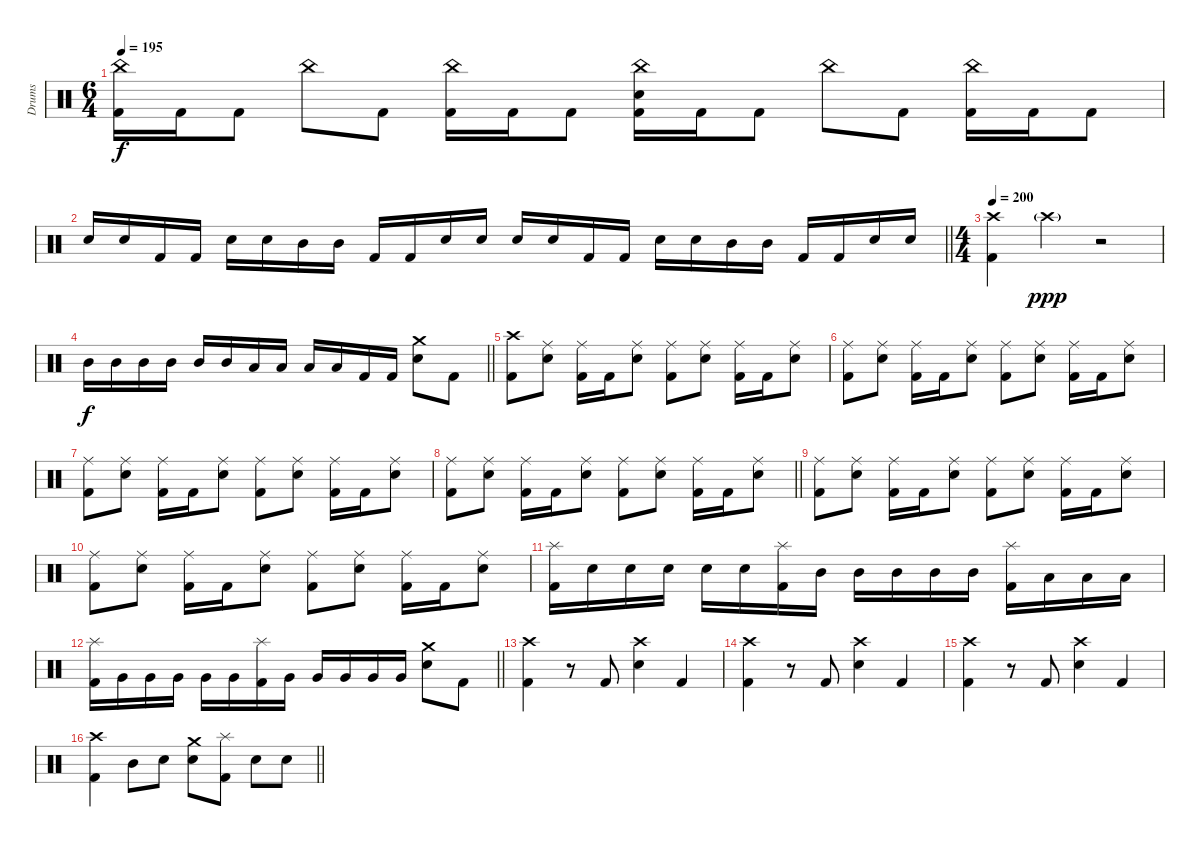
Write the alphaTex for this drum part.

\track ("Drums" "Drums") {instrument percussion}
\staff {score}
\articulation defaults
\ts (6 4)
\tempo 195
\clef neutral
\ks c
("China (hit)" "Kick (hit) 2").16{dy f} "Kick (hit) 2".16 "Kick (hit) 2".8 "China (hit)".8 "Kick (hit) 2".8 ("China (hit)" "Kick (hit) 2").16 "Kick (hit) 2".16 "Kick (hit) 2".8 ("China (hit)" "Electric Snare (hit)" "Kick (hit) 2").16 "Kick (hit) 2".16 "Kick (hit) 2".8 "China (hit)".8 "Kick (hit) 2".8 ("China (hit)" "Kick (hit) 2").16 "Kick (hit) 2".16 "Kick (hit) 2".8 |
\barLineRight lightlight "Electric Snare (hit)".16 "Electric Snare (hit)".16 "Kick (hit) 2".16 "Kick (hit) 2".16 "Electric Snare (hit)".16 "Electric Snare (hit)".16 "Mid Tom (hit)".16 "Mid Tom (hit)".16 "Kick (hit) 2".16 "Kick (hit) 2".16 "Electric Snare (hit)".16 "Electric Snare (hit)".16 "Electric Snare (hit)".16 "Electric Snare (hit)".16 "Kick (hit) 2".16 "Kick (hit) 2".16 "Electric Snare (hit)".16 "Electric Snare (hit)".16 "Mid Tom (hit)".16 "Mid Tom (hit)".16 "Kick (hit) 2".16 "Kick (hit) 2".16 "Electric Snare (hit)".16 "Electric Snare (hit)".16
|
\ts (4 4)
\tempo 200
("Crash high (hit)" "Kick (hit) 2").4 "Crash high (hit)"{g}.4{dy ppp} r.2 |
\barLineRight lightlight "Mid Tom (hit)".16{dy f} "Mid Tom (hit)".16 "Mid Tom (hit)".16 "Mid Tom (hit)".16 "Mid Tom (hit)".16 "Mid Tom (hit)".16 "Low Tom (hit)".16 "Low Tom (hit)".16 "Low Tom (hit)".16 "Low Tom (hit)".16 "Kick (hit) 2".16 "Kick (hit) 2".16
("Crash medium (hit)" "Electric Snare (hit)").8 "Kick (hit) 2".8 |
("Crash high (hit)" "Kick (hit) 2").8 ("Ride (middle)" "Electric Snare (hit)").8 ("Ride (middle)" "Kick (hit) 2").16 "Kick (hit) 2".16 ("Ride (middle)" "Electric Snare (hit)").8 ("Ride (middle)" "Kick (hit) 2").8 ("Ride (middle)" "Electric Snare (hit)").8 ("Ride (middle)" "Kick (hit) 2").16 "Kick (hit) 2".16 ("Ride (middle)" "Electric Snare (hit)").8 |
("Ride (middle)" "Kick (hit) 2").8 ("Ride (middle)" "Electric Snare (hit)").8 ("Ride (middle)" "Kick (hit) 2").16 "Kick (hit) 2".16 ("Ride (middle)" "Electric Snare (hit)").8 ("Ride (middle)" "Kick (hit) 2").8 ("Ride (middle)" "Electric Snare (hit)").8 ("Ride (middle)" "Kick (hit) 2").16 "Kick (hit) 2".16 ("Ride (middle)" "Electric Snare (hit)").8 |
("Ride (middle)" "Kick (hit) 2").8 ("Ride (middle)" "Electric Snare (hit)").8 ("Ride (middle)" "Kick (hit) 2").16 "Kick (hit) 2".16 ("Ride (middle)" "Electric Snare (hit)").8 ("Ride (middle)" "Kick (hit) 2").8 ("Ride (middle)" "Electric Snare (hit)").8 ("Ride (middle)" "Kick (hit) 2").16 "Kick (hit) 2".16 ("Ride (middle)" "Electric Snare (hit)").8 |
\barLineRight lightlight
("Ride (middle)" "Kick (hit) 2").8 ("Ride (middle)" "Electric Snare (hit)").8 ("Ride (middle)" "Kick (hit) 2").16 "Kick (hit) 2".16 ("Ride (middle)" "Electric Snare (hit)").8 ("Ride (middle)" "Kick (hit) 2").8 ("Ride (middle)" "Electric Snare (hit)").8 ("Ride (middle)" "Kick (hit) 2").16 "Kick (hit) 2".16 ("Ride (middle)" "Electric Snare (hit)").8 |
("Ride (middle)" "Kick (hit) 2").8 ("Ride (middle)" "Electric Snare (hit)").8 ("Ride (middle)" "Kick (hit) 2").16 "Kick (hit) 2".16 ("Ride (middle)" "Electric Snare (hit)").8 ("Ride (middle)" "Kick (hit) 2").8 ("Ride (middle)" "Electric Snare (hit)").8 ("Ride (middle)" "Kick (hit) 2").16 "Kick (hit) 2".16 ("Ride (middle)" "Electric Snare (hit)").8 |
("Ride (middle)" "Kick (hit) 2").8 ("Ride (middle)" "Electric Snare (hit)").8 ("Ride (middle)" "Kick (hit) 2").16 "Kick (hit) 2".16 ("Ride (middle)" "Electric Snare (hit)").8 ("Ride (middle)" "Kick (hit) 2").8 ("Ride (middle)" "Electric Snare (hit)").8 ("Ride (middle)" "Kick (hit) 2").16 "Kick (hit) 2".16 ("Ride (middle)" "Electric Snare (hit)").8 |
("Splash (hit)" "Kick (hit) 2").16 "Electric Snare (hit)".16 "Electric Snare (hit)".16 "Electric Snare (hit)".16 "Electric Snare (hit)".16 "Electric Snare (hit)".16 ("Splash (hit)" "Kick (hit) 2").16 "Mid Tom (hit)".16 "Mid Tom (hit)".16 "Mid Tom (hit)".16 "Mid Tom (hit)".16 "Mid Tom (hit)".16 ("Splash (hit)" "Kick (hit) 2").16 "Low Tom (hit)".16 "Low Tom (hit)".16 "Low Tom (hit)".16 |
\barLineRight lightlight
("Splash (hit)" "Kick (hit) 2").16 "Very Low Tom (hit)".16 "Very Low Tom (hit)".16 "Very Low Tom (hit)".16 "Very Low Tom (hit)".16 "Very Low Tom (hit)".16 ("Splash (hit)" "Kick (hit) 2").16 "Very Low Tom (hit)".16 "Very Low Tom (hit)".16 "Very Low Tom (hit)".16 "Very Low Tom (hit)".16 "Very Low Tom (hit)".16 ("Crash medium (hit)" "Electric Snare (hit)").8 "Kick (hit) 2".8 |
("Crash high (hit)" "Kick (hit) 2").4 r.8 "Kick (hit) 2".8 ("Crash high (hit)" "Electric Snare (hit)").4 "Kick (hit) 2".4 |
("Crash high (hit)" "Kick (hit) 2").4 r.8 "Kick (hit) 2".8 ("Crash high (hit)" "Electric Snare (hit)").4 "Kick (hit) 2".4 |
("Crash high (hit)" "Kick (hit) 2").4 r.8 "Kick (hit) 2".8 ("Crash high (hit)" "Electric Snare (hit)").4 "Kick (hit) 2".4 |
\barLineRight lightlight
("Crash high (hit)" "Kick (hit) 2").4 "Mid Tom (hit)".8 "Electric Snare (hit)".8 ("Crash medium (hit)" "Electric Snare (hit)").8 ("Splash (hit)" "Kick (hit) 2").8 "Electric Snare (hit)".8 "Electric Snare (hit)".8
